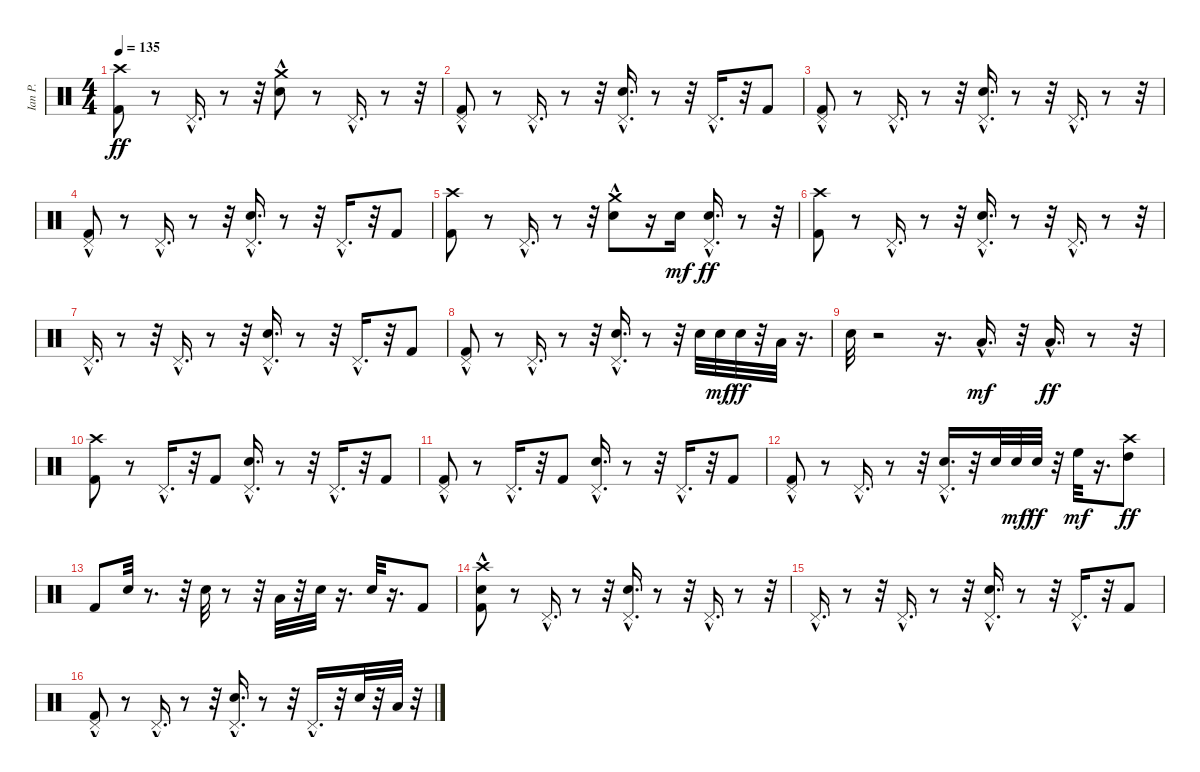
\track ("Ian P." "Ian P.") {instrument percussion}
\staff {score}
\articulation defaults
\ts (4 4)
\tempo 135
\clef neutral
\ks c
("Crash high (hit)" "Kick (hit) 2").8{dy ff} r.8 "Pedal Hi-Hat (hit)"{hac}.16{d} r.8 r.32 ("Snare (hit) 2"{hac} "Crash medium (hit)").8 r.8 "Pedal Hi-Hat (hit)"{hac}.16{d} r.8 r.32 |
("Kick (hit) 2" "Pedal Hi-Hat (hit)"{hac}).8 r.8 "Pedal Hi-Hat (hit)"{hac}.16{d} r.8 r.32 ("Snare (hit) 2"{hac} "Pedal Hi-Hat (hit)"{hac}).16{d} r.8 r.32 "Pedal Hi-Hat (hit)"{hac}.16{d} r.32 "Kick (hit) 2".8 |
("Kick (hit) 2" "Pedal Hi-Hat (hit)"{hac}).8 r.8 "Pedal Hi-Hat (hit)"{hac}.16{d} r.8 r.32 ("Snare (hit) 2"{hac} "Pedal Hi-Hat (hit)"{hac}).16{d} r.8 r.32 "Pedal Hi-Hat (hit)"{hac}.16{d} r.8 r.32 |
("Kick (hit) 2" "Pedal Hi-Hat (hit)"{hac}).8 r.8 "Pedal Hi-Hat (hit)"{hac}.16{d} r.8 r.32 ("Snare (hit) 2"{hac} "Pedal Hi-Hat (hit)"{hac}).16{d} r.8 r.32 "Pedal Hi-Hat (hit)"{hac}.16{d} r.32 "Kick (hit) 2".8 |
("Crash high (hit)" "Kick (hit) 2").8 r.8 "Pedal Hi-Hat (hit)"{hac}.16{d} r.8 r.32 ("Snare (hit) 2"{hac} "Crash medium (hit)").8 r.16 "Snare (hit) 2".16{dy mf} ("Snare (hit) 2"{hac} "Pedal Hi-Hat (hit)"{hac}).16{d dy ff} r.8 r.32 |
("Kick (hit) 2" "Crash high (hit)").8 r.8 "Pedal Hi-Hat (hit)"{hac}.16{d} r.8 r.32 ("Snare (hit) 2"{hac} "Pedal Hi-Hat (hit)"{hac}).16{d} r.8 r.32 "Pedal Hi-Hat (hit)"{hac}.16{d} r.8 r.32 |
"Pedal Hi-Hat (hit)"{hac}.16{d} r.8 r.32 "Pedal Hi-Hat (hit)"{hac}.16{d} r.8 r.32 ("Snare (hit) 2"{hac} "Pedal Hi-Hat (hit)"{hac}).16{d} r.8 r.32 "Pedal Hi-Hat (hit)"{hac}.16{d} r.32 "Kick (hit) 2".8 |
("Kick (hit) 2" "Pedal Hi-Hat (hit)"{hac}).8 r.8 "Pedal Hi-Hat (hit)"{hac}.16{d} r.8 r.32 ("Snare (hit) 2"{hac} "Pedal Hi-Hat (hit)"{hac}).16{d} r.8 r.32 "Snare (hit) 2".32 "Snare (hit) 2".32{dy mf} "Snare (hit) 2".32{dy ff} r.32 "Low Floor Tom (hit)".32 r.16{d} |
"Snare (hit) 2".32 r.2 r.16{d} "Low Tom (hit)"{hac}.16{d dy mf} r.32 "Low Floor Tom (hit)"{hac}.16{d dy ff} r.8 r.32 |
("Crash high (hit)" "Kick (hit) 2").8 r.8 "Pedal Hi-Hat (hit)"{hac}.16{d} r.32 "Kick (hit) 2".8 ("Snare (hit) 2"{hac} "Pedal Hi-Hat (hit)"{hac}).16{d} r.8 r.32 "Pedal Hi-Hat (hit)"{hac}.16{d} r.32 "Kick (hit) 2".8 |
("Kick (hit) 2" "Pedal Hi-Hat (hit)"{hac}).8 r.8 "Pedal Hi-Hat (hit)"{hac}.16{d} r.32 "Kick (hit) 2".8 ("Snare (hit) 2"{hac} "Pedal Hi-Hat (hit)"{hac}).16{d} r.8 r.32 "Pedal Hi-Hat (hit)"{hac}.16{d} r.32 "Kick (hit) 2".8 |
("Kick (hit) 2" "Pedal Hi-Hat (hit)"{hac}).8 r.8 "Pedal Hi-Hat (hit)"{hac}.16{d} r.8 r.32 ("Snare (hit) 2" "Pedal Hi-Hat (hit)"{hac}).16{d} r.32 "Snare (hit) 2".32 "Snare (hit) 2".32{dy mf} "Snare (hit) 2".32{dy ff} r.32 "High Floor Tom (hit)".32{dy mf} r.16{d} ("High Tom (hit)" "Crash high (hit)").8{dy ff} |
"Kick (hit) 2".8 "Snare (hit) 2".32 r.8{d} r.32 "Snare (hit) 2".32 r.8 r.32 "Low Tom (hit)".32 r.32 "Snare (hit) 2".32 r.16{d} "Snare (hit) 2".32 r.16{d} "Kick (hit) 2".8 |
("Snare (hit) 2"{hac} "Kick (hit) 2" "Crash high (hit)").8 r.8 "Pedal Hi-Hat (hit)"{hac}.16{d} r.8 r.32 ("Snare (hit) 2"{hac} "Pedal Hi-Hat (hit)"{hac}).16{d} r.8 r.32 "Pedal Hi-Hat (hit)"{hac}.16{d} r.8 r.32 |
"Pedal Hi-Hat (hit)"{hac}.16{d} r.8 r.32 "Pedal Hi-Hat (hit)"{hac}.16{d} r.8 r.32 ("Snare (hit) 2"{hac} "Pedal Hi-Hat (hit)"{hac}).16{d} r.8 r.32 "Pedal Hi-Hat (hit)"{hac}.16{d} r.32 "Kick (hit) 2".8 |
("Kick (hit) 2" "Pedal Hi-Hat (hit)"{hac}).8 r.8 "Pedal Hi-Hat (hit)"{hac}.16{d} r.8 r.32 ("Snare (hit) 2"{hac} "Pedal Hi-Hat (hit)"{hac}).16{d} r.8 r.32 "Pedal Hi-Hat (hit)"{hac}.16{d} r.32 "Snare (hit) 2".32 r.32 "Low Floor Tom (hit)".32 r.32
